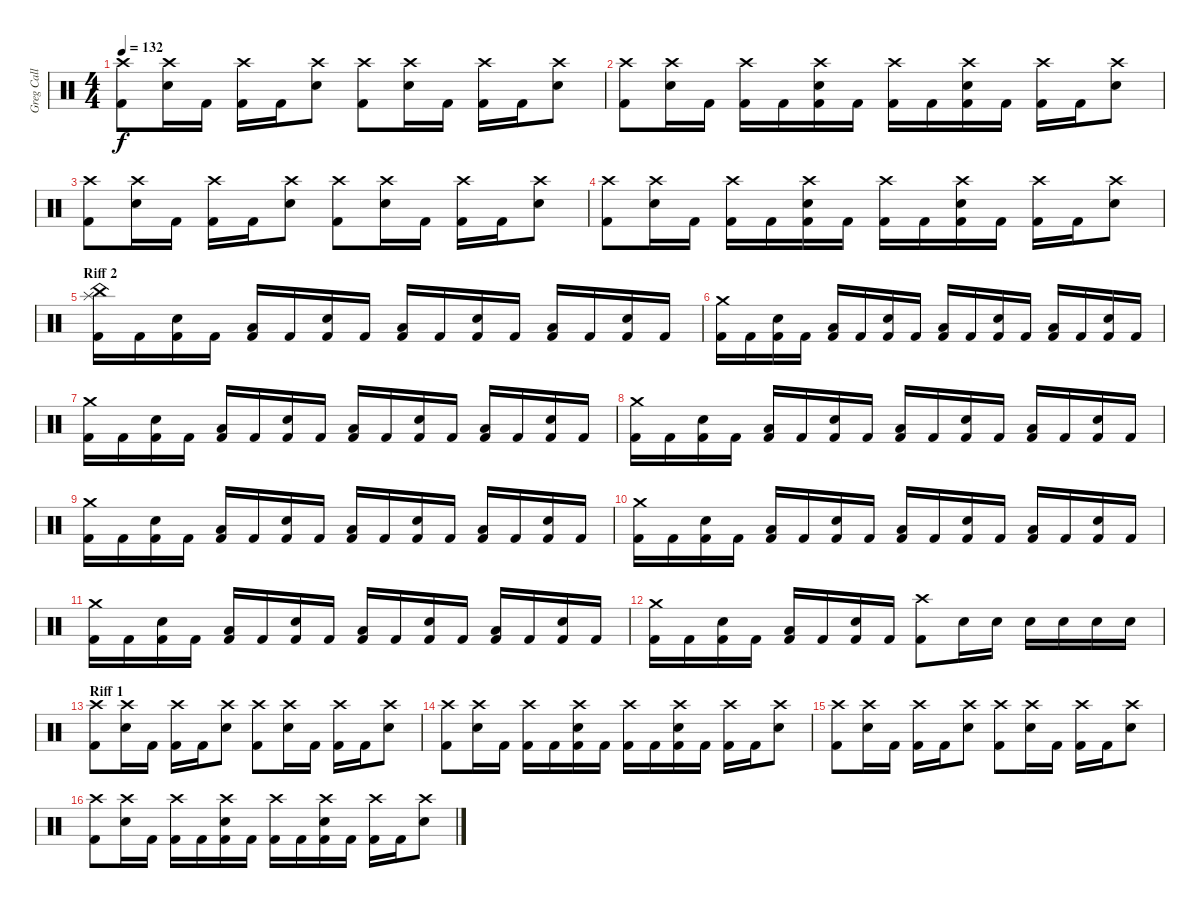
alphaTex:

\track ("Greg Call >>Drums" "Greg Call ") {instrument percussion}
\staff {score}
\articulation defaults
\ts (4 4)
\tempo 132
\clef neutral
\ks c
("Crash high (hit)" "Kick (hit) 2").8{dy f} ("Crash high (hit)" "Snare (hit) 2").16 "Kick (hit) 2".16 ("Crash high (hit)" "Kick (hit) 2").16 "Kick (hit) 2".16 ("Crash high (hit)" "Snare (hit) 2").8 ("Crash high (hit)" "Kick (hit) 2").8 ("Crash high (hit)" "Snare (hit) 2").16 "Kick (hit) 2".16 ("Crash high (hit)" "Kick (hit) 2").16 "Kick (hit) 2".16 ("Crash high (hit)" "Snare (hit) 2").8 |
("Crash high (hit)" "Kick (hit) 2").8 ("Crash high (hit)" "Snare (hit) 2").16 "Kick (hit) 2".16 ("Crash high (hit)" "Kick (hit) 2").16 "Kick (hit) 2".16 ("Crash high (hit)" "Snare (hit) 2" "Kick (hit) 2").16 "Kick (hit) 2".16 ("Crash high (hit)" "Kick (hit) 2").16 "Kick (hit) 2".16 ("Crash high (hit)" "Snare (hit) 2" "Kick (hit) 2").16 "Kick (hit) 2".16 ("Crash high (hit)" "Kick (hit) 2").16 "Kick (hit) 2".16 ("Crash high (hit)" "Snare (hit) 2").8 |
("Crash high (hit)" "Kick (hit) 2").8 ("Crash high (hit)" "Snare (hit) 2").16 "Kick (hit) 2".16 ("Crash high (hit)" "Kick (hit) 2").16 "Kick (hit) 2".16 ("Crash high (hit)" "Snare (hit) 2").8 ("Crash high (hit)" "Kick (hit) 2").8 ("Crash high (hit)" "Snare (hit) 2").16 "Kick (hit) 2".16 ("Crash high (hit)" "Kick (hit) 2").16 "Kick (hit) 2".16 ("Crash high (hit)" "Snare (hit) 2").8 |
("Crash high (hit)" "Kick (hit) 2").8 ("Crash high (hit)" "Snare (hit) 2").16 "Kick (hit) 2".16 ("Crash high (hit)" "Kick (hit) 2").16 "Kick (hit) 2".16 ("Crash high (hit)" "Snare (hit) 2" "Kick (hit) 2").16 "Kick (hit) 2".16 ("Crash high (hit)" "Kick (hit) 2").16 "Kick (hit) 2".16 ("Crash high (hit)" "Snare (hit) 2" "Kick (hit) 2").16 "Kick (hit) 2".16 ("Crash high (hit)" "Kick (hit) 2").16 "Kick (hit) 2".16 ("Crash high (hit)" "Snare (hit) 2").8 |
\section ("" "Riff 2")
("Splash (hit)" "China (hit)" "Kick (hit) 2").16 "Kick (hit) 2".16 ("Snare (hit) 2" "Kick (hit) 2").16 "Kick (hit) 2".16 ("Low Floor Tom (hit)" "Kick (hit) 2").16 "Kick (hit) 2".16 ("Snare (hit) 2" "Kick (hit) 2").16 "Kick (hit) 2".16 ("Low Floor Tom (hit)" "Kick (hit) 2").16 "Kick (hit) 2".16 ("Snare (hit) 2" "Kick (hit) 2").16 "Kick (hit) 2".16 ("Low Floor Tom (hit)" "Kick (hit) 2").16 "Kick (hit) 2".16 ("Snare (hit) 2" "Kick (hit) 2").16 "Kick (hit) 2".16 |
("Crash medium (hit)" "Kick (hit) 2").16 "Kick (hit) 2".16 ("Snare (hit) 2" "Kick (hit) 2").16 "Kick (hit) 2".16 ("Low Floor Tom (hit)" "Kick (hit) 2").16 "Kick (hit) 2".16 ("Snare (hit) 2" "Kick (hit) 2").16 "Kick (hit) 2".16 ("Low Floor Tom (hit)" "Kick (hit) 2").16 "Kick (hit) 2".16 ("Snare (hit) 2" "Kick (hit) 2").16 "Kick (hit) 2".16 ("Low Floor Tom (hit)" "Kick (hit) 2").16 "Kick (hit) 2".16 ("Snare (hit) 2" "Kick (hit) 2").16 "Kick (hit) 2".16 |
("Crash medium (hit)" "Kick (hit) 2").16 "Kick (hit) 2".16 ("Snare (hit) 2" "Kick (hit) 2").16 "Kick (hit) 2".16 ("Low Floor Tom (hit)" "Kick (hit) 2").16 "Kick (hit) 2".16 ("Snare (hit) 2" "Kick (hit) 2").16 "Kick (hit) 2".16 ("Low Floor Tom (hit)" "Kick (hit) 2").16 "Kick (hit) 2".16 ("Snare (hit) 2" "Kick (hit) 2").16 "Kick (hit) 2".16 ("Low Floor Tom (hit)" "Kick (hit) 2").16 "Kick (hit) 2".16 ("Snare (hit) 2" "Kick (hit) 2").16 "Kick (hit) 2".16 |
("Crash medium (hit)" "Kick (hit) 2").16 "Kick (hit) 2".16 ("Snare (hit) 2" "Kick (hit) 2").16 "Kick (hit) 2".16 ("Low Floor Tom (hit)" "Kick (hit) 2").16 "Kick (hit) 2".16 ("Snare (hit) 2" "Kick (hit) 2").16 "Kick (hit) 2".16 ("Low Floor Tom (hit)" "Kick (hit) 2").16 "Kick (hit) 2".16 ("Snare (hit) 2" "Kick (hit) 2").16 "Kick (hit) 2".16 ("Low Floor Tom (hit)" "Kick (hit) 2").16 "Kick (hit) 2".16 ("Snare (hit) 2" "Kick (hit) 2").16 "Kick (hit) 2".16 |
("Crash medium (hit)" "Kick (hit) 2").16 "Kick (hit) 2".16 ("Snare (hit) 2" "Kick (hit) 2").16 "Kick (hit) 2".16 ("Low Floor Tom (hit)" "Kick (hit) 2").16 "Kick (hit) 2".16 ("Snare (hit) 2" "Kick (hit) 2").16 "Kick (hit) 2".16 ("Low Floor Tom (hit)" "Kick (hit) 2").16 "Kick (hit) 2".16 ("Snare (hit) 2" "Kick (hit) 2").16 "Kick (hit) 2".16 ("Low Floor Tom (hit)" "Kick (hit) 2").16 "Kick (hit) 2".16 ("Snare (hit) 2" "Kick (hit) 2").16 "Kick (hit) 2".16 |
("Crash medium (hit)" "Kick (hit) 2").16 "Kick (hit) 2".16 ("Snare (hit) 2" "Kick (hit) 2").16 "Kick (hit) 2".16 ("Low Floor Tom (hit)" "Kick (hit) 2").16 "Kick (hit) 2".16 ("Snare (hit) 2" "Kick (hit) 2").16 "Kick (hit) 2".16 ("Low Floor Tom (hit)" "Kick (hit) 2").16 "Kick (hit) 2".16 ("Snare (hit) 2" "Kick (hit) 2").16 "Kick (hit) 2".16 ("Low Floor Tom (hit)" "Kick (hit) 2").16 "Kick (hit) 2".16 ("Snare (hit) 2" "Kick (hit) 2").16 "Kick (hit) 2".16 |
("Crash medium (hit)" "Kick (hit) 2").16 "Kick (hit) 2".16 ("Snare (hit) 2" "Kick (hit) 2").16 "Kick (hit) 2".16 ("Low Floor Tom (hit)" "Kick (hit) 2").16 "Kick (hit) 2".16 ("Snare (hit) 2" "Kick (hit) 2").16 "Kick (hit) 2".16 ("Low Floor Tom (hit)" "Kick (hit) 2").16 "Kick (hit) 2".16 ("Snare (hit) 2" "Kick (hit) 2").16 "Kick (hit) 2".16 ("Low Floor Tom (hit)" "Kick (hit) 2").16 "Kick (hit) 2".16 ("Snare (hit) 2" "Kick (hit) 2").16 "Kick (hit) 2".16 |
("Crash medium (hit)" "Kick (hit) 2").16 "Kick (hit) 2".16 ("Snare (hit) 2" "Kick (hit) 2").16 "Kick (hit) 2".16 ("Low Floor Tom (hit)" "Kick (hit) 2").16 "Kick (hit) 2".16 ("Snare (hit) 2" "Kick (hit) 2").16 "Kick (hit) 2".16 ("Crash high (hit)" "Kick (hit) 2").8 "Snare (hit) 2".16 "Snare (hit) 2".16 "Snare (hit) 2".16 "Snare (hit) 2".16 "Snare (hit) 2".16 "Snare (hit) 2".16 |
\section ("" "Riff 1")
("Crash high (hit)" "Kick (hit) 2").8 ("Crash high (hit)" "Snare (hit) 2").16 "Kick (hit) 2".16 ("Crash high (hit)" "Kick (hit) 2").16 "Kick (hit) 2".16 ("Crash high (hit)" "Snare (hit) 2").8 ("Crash high (hit)" "Kick (hit) 2").8 ("Crash high (hit)" "Snare (hit) 2").16 "Kick (hit) 2".16 ("Crash high (hit)" "Kick (hit) 2").16 "Kick (hit) 2".16 ("Crash high (hit)" "Snare (hit) 2").8 |
("Crash high (hit)" "Kick (hit) 2").8 ("Crash high (hit)" "Snare (hit) 2").16 "Kick (hit) 2".16 ("Crash high (hit)" "Kick (hit) 2").16 "Kick (hit) 2".16 ("Crash high (hit)" "Snare (hit) 2" "Kick (hit) 2").16 "Kick (hit) 2".16 ("Crash high (hit)" "Kick (hit) 2").16 "Kick (hit) 2".16 ("Crash high (hit)" "Snare (hit) 2" "Kick (hit) 2").16 "Kick (hit) 2".16 ("Crash high (hit)" "Kick (hit) 2").16 "Kick (hit) 2".16 ("Crash high (hit)" "Snare (hit) 2").8 |
("Crash high (hit)" "Kick (hit) 2").8 ("Crash high (hit)" "Snare (hit) 2").16 "Kick (hit) 2".16 ("Crash high (hit)" "Kick (hit) 2").16 "Kick (hit) 2".16 ("Crash high (hit)" "Snare (hit) 2").8 ("Crash high (hit)" "Kick (hit) 2").8 ("Crash high (hit)" "Snare (hit) 2").16 "Kick (hit) 2".16 ("Crash high (hit)" "Kick (hit) 2").16 "Kick (hit) 2".16 ("Crash high (hit)" "Snare (hit) 2").8 |
("Crash high (hit)" "Kick (hit) 2").8 ("Crash high (hit)" "Snare (hit) 2").16 "Kick (hit) 2".16 ("Crash high (hit)" "Kick (hit) 2").16 "Kick (hit) 2".16 ("Crash high (hit)" "Snare (hit) 2" "Kick (hit) 2").16 "Kick (hit) 2".16 ("Crash high (hit)" "Kick (hit) 2").16 "Kick (hit) 2".16 ("Crash high (hit)" "Snare (hit) 2" "Kick (hit) 2").16 "Kick (hit) 2".16 ("Crash high (hit)" "Kick (hit) 2").16 "Kick (hit) 2".16 ("Crash high (hit)" "Snare (hit) 2").8
